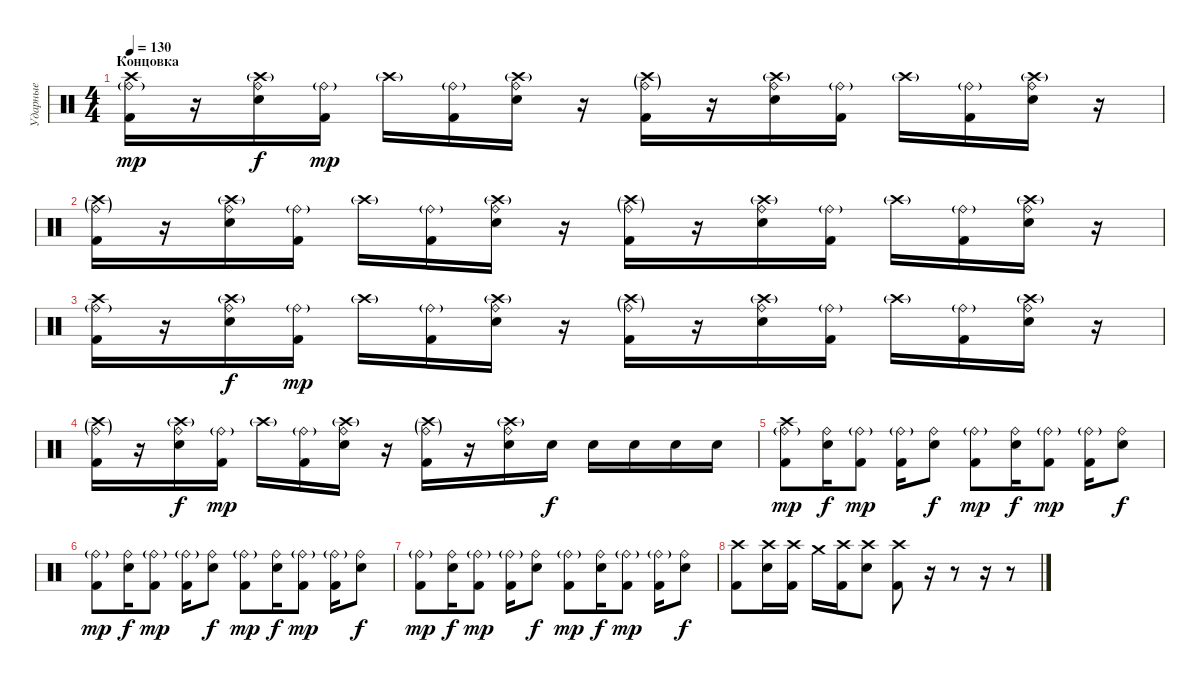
\track ("Ударные" "Ударные") {instrument percussion}
\staff {score}
\articulation defaults
\ts (4 4)
\section ("" "Концовка")
\tempo 130
\clef neutral
\ks c
("Crash high (hit)" "Ride (bell)"{g} "Kick (hit) 2").16{dy mp} r.16 ("Crash high (hit)"{g} "Snare (hit) 2" "Ride (bell)").16{dy f} ("Ride (bell)"{g} "Kick (hit) 2").16{dy mp} "Crash high (hit)"{g}.16 ("Ride (bell)"{g} "Kick (hit) 2").16 ("Crash high (hit)"{g} "Snare (hit) 2" "Ride (bell)").16 r.16 ("Crash high (hit)"{g} "Ride (bell)"{g} "Kick (hit) 2").16 r.16 ("Crash high (hit)"{g} "Snare (hit) 2" "Ride (bell)").16 ("Ride (bell)"{g} "Kick (hit) 2").16 "Crash high (hit)"{g}.16 ("Ride (bell)"{g} "Kick (hit) 2").16 ("Crash high (hit)"{g} "Snare (hit) 2" "Ride (bell)").16 r.16 |
("Crash high (hit)"{g} "Ride (bell)"{g} "Kick (hit) 2").16 r.16 ("Crash high (hit)"{g} "Snare (hit) 2" "Ride (bell)").16 ("Ride (bell)"{g} "Kick (hit) 2").16 "Crash high (hit)"{g}.16 ("Ride (bell)"{g} "Kick (hit) 2").16 ("Crash high (hit)"{g} "Snare (hit) 2" "Ride (bell)").16 r.16 ("Crash high (hit)"{g} "Ride (bell)"{g} "Kick (hit) 2").16 r.16 ("Crash high (hit)"{g} "Snare (hit) 2" "Ride (bell)").16 ("Ride (bell)"{g} "Kick (hit) 2").16 "Crash high (hit)"{g}.16 ("Ride (bell)"{g} "Kick (hit) 2").16 ("Crash high (hit)"{g} "Snare (hit) 2" "Ride (bell)").16 r.16 |
("Crash high (hit)" "Ride (bell)"{g} "Kick (hit) 2").16 r.16 ("Crash high (hit)"{g} "Snare (hit) 2" "Ride (bell)").16{dy f} ("Ride (bell)"{g} "Kick (hit) 2").16{dy mp} "Crash high (hit)"{g}.16 ("Ride (bell)"{g} "Kick (hit) 2").16 ("Crash high (hit)"{g} "Snare (hit) 2" "Ride (bell)").16 r.16 ("Crash high (hit)"{g} "Ride (bell)"{g} "Kick (hit) 2").16 r.16 ("Crash high (hit)"{g} "Snare (hit) 2" "Ride (bell)").16 ("Ride (bell)"{g} "Kick (hit) 2").16 "Crash high (hit)"{g}.16 ("Ride (bell)"{g} "Kick (hit) 2").16 ("Crash high (hit)"{g} "Snare (hit) 2" "Ride (bell)").16 r.16 |
("Crash high (hit)"{g} "Ride (bell)"{g} "Kick (hit) 2").16 r.16 ("Crash high (hit)"{g} "Snare (hit) 2" "Ride (bell)").16{dy f} ("Ride (bell)"{g} "Kick (hit) 2").16{dy mp} "Crash high (hit)"{g}.16 ("Ride (bell)"{g} "Kick (hit) 2").16 ("Crash high (hit)"{g} "Snare (hit) 2" "Ride (bell)").16 r.16 ("Crash high (hit)"{g} "Ride (bell)"{g} "Kick (hit) 2").16 r.16 ("Crash high (hit)"{g} "Snare (hit) 2" "Ride (bell)").16 "Snare (hit) 2".16{dy f} "Snare (hit) 2".16 "Snare (hit) 2".16 "Snare (hit) 2".16 "Snare (hit) 2".16 |
("Crash high (hit)" "Ride (bell)"{g} "Kick (hit) 2").8{dy mp} ("Snare (hit) 2" "Ride (bell)").16{dy f} ("Ride (bell)"{g} "Kick (hit) 2").8{dy mp} ("Ride (bell)"{g} "Kick (hit) 2").16 ("Snare (hit) 2" "Ride (bell)").8{dy f} ("Ride (bell)"{g} "Kick (hit) 2").8{dy mp} ("Snare (hit) 2" "Ride (bell)").16{dy f} ("Ride (bell)"{g} "Kick (hit) 2").8{dy mp} ("Ride (bell)"{g} "Kick (hit) 2").16 ("Snare (hit) 2" "Ride (bell)").8{dy f} |
("Ride (bell)"{g} "Kick (hit) 2").8{dy mp} ("Snare (hit) 2" "Ride (bell)").16{dy f} ("Ride (bell)"{g} "Kick (hit) 2").8{dy mp} ("Ride (bell)"{g} "Kick (hit) 2").16 ("Snare (hit) 2" "Ride (bell)").8{dy f} ("Ride (bell)"{g} "Kick (hit) 2").8{dy mp} ("Snare (hit) 2" "Ride (bell)").16{dy f} ("Ride (bell)"{g} "Kick (hit) 2").8{dy mp} ("Ride (bell)"{g} "Kick (hit) 2").16 ("Snare (hit) 2" "Ride (bell)").8{dy f} |
("Ride (bell)"{g} "Kick (hit) 2").8{dy mp} ("Snare (hit) 2" "Ride (bell)").16{dy f} ("Ride (bell)"{g} "Kick (hit) 2").8{dy mp} ("Ride (bell)"{g} "Kick (hit) 2").16 ("Snare (hit) 2" "Ride (bell)").8{dy f} ("Ride (bell)"{g} "Kick (hit) 2").8{dy mp} ("Snare (hit) 2" "Ride (bell)").16{dy f} ("Ride (bell)"{g} "Kick (hit) 2").8{dy mp} ("Ride (bell)"{g} "Kick (hit) 2").16 ("Snare (hit) 2" "Ride (bell)").8{dy f} |
("Crash high (hit)" "Kick (hit) 2").8 ("Crash high (hit)" "Snare (hit) 2").16 ("Crash high (hit)" "Kick (hit) 2").16 "Crash medium (hit)".16 ("Crash high (hit)" "Kick (hit) 2").16 ("Crash high (hit)" "Snare (hit) 2").8 ("Crash high (hit)" "Kick (hit) 2").8 r.16 r.8 r.16 r.8
